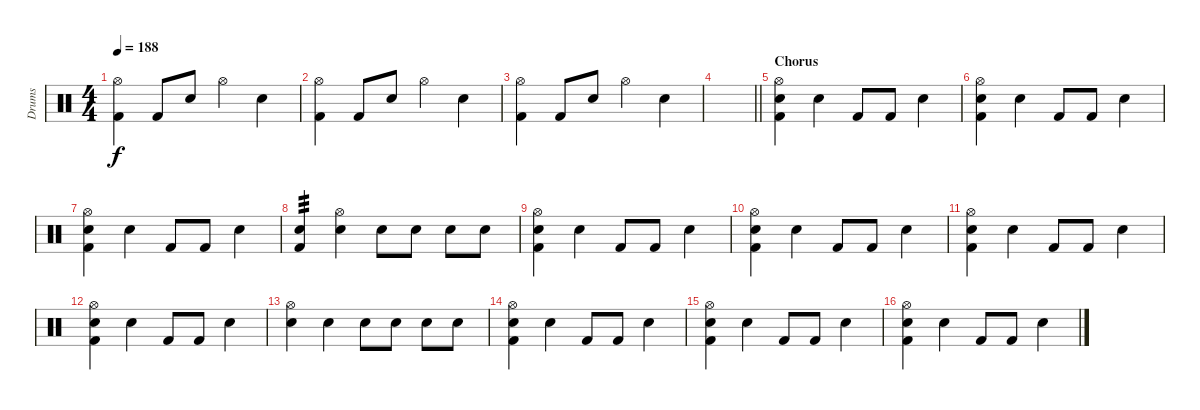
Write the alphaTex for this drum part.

\track ("Drums" "Drums") {instrument percussion}
\staff {score}
\articulation defaults
\ts (4 4)
\tempo 188
\clef neutral
\ks c
("Hi-Hat (open)" "Kick (hit) 2").4{dy f} "Kick (hit) 2".8 "Electric Snare (hit)".8 "Hi-Hat (open)".4 "Electric Snare (hit)".4 |
("Hi-Hat (open)" "Kick (hit) 2").4 "Kick (hit) 2".8 "Electric Snare (hit)".8 "Hi-Hat (open)".4 "Electric Snare (hit)".4 |
("Hi-Hat (open)" "Kick (hit) 2").4 "Kick (hit) 2".8 "Electric Snare (hit)".8 "Hi-Hat (open)".4 "Electric Snare (hit)".4 |
\barLineRight lightlight
|
\section ("" "Chorus")
("Hi-Hat (open)" "Electric Snare (hit)" "Kick (hit) 2").4 "Electric Snare (hit)".4 "Kick (hit) 2".8 "Kick (hit) 2".8 "Electric Snare (hit)".4 |
("Hi-Hat (open)" "Electric Snare (hit)" "Kick (hit) 2").4 "Electric Snare (hit)".4 "Kick (hit) 2".8 "Kick (hit) 2".8 "Electric Snare (hit)".4 |
("Hi-Hat (open)" "Electric Snare (hit)" "Kick (hit) 2").4 "Electric Snare (hit)".4 "Kick (hit) 2".8 "Kick (hit) 2".8 "Electric Snare (hit)".4 |
("Electric Snare (hit)" "Kick (hit) 2").4{tp 3} ("Hi-Hat (open)" "Electric Snare (hit)").4 "Electric Snare (hit)".8 "Electric Snare (hit)".8 "Electric Snare (hit)".8 "Electric Snare (hit)".8 |
("Hi-Hat (open)" "Electric Snare (hit)" "Kick (hit) 2").4 "Electric Snare (hit)".4 "Kick (hit) 2".8 "Kick (hit) 2".8 "Electric Snare (hit)".4 |
("Hi-Hat (open)" "Electric Snare (hit)" "Kick (hit) 2").4 "Electric Snare (hit)".4 "Kick (hit) 2".8 "Kick (hit) 2".8 "Electric Snare (hit)".4 |
("Hi-Hat (open)" "Electric Snare (hit)" "Kick (hit) 2").4 "Electric Snare (hit)".4 "Kick (hit) 2".8 "Kick (hit) 2".8 "Electric Snare (hit)".4 |
("Hi-Hat (open)" "Electric Snare (hit)" "Kick (hit) 2").4 "Electric Snare (hit)".4 "Kick (hit) 2".8 "Kick (hit) 2".8 "Electric Snare (hit)".4 |
("Hi-Hat (open)" "Electric Snare (hit)").4 "Electric Snare (hit)".4 "Electric Snare (hit)".8 "Electric Snare (hit)".8 "Electric Snare (hit)".8 "Electric Snare (hit)".8 |
("Hi-Hat (open)" "Electric Snare (hit)" "Kick (hit) 2").4 "Electric Snare (hit)".4 "Kick (hit) 2".8 "Kick (hit) 2".8 "Electric Snare (hit)".4 |
("Hi-Hat (open)" "Electric Snare (hit)" "Kick (hit) 2").4 "Electric Snare (hit)".4 "Kick (hit) 2".8 "Kick (hit) 2".8 "Electric Snare (hit)".4 |
("Hi-Hat (open)" "Electric Snare (hit)" "Kick (hit) 2").4 "Electric Snare (hit)".4 "Kick (hit) 2".8 "Kick (hit) 2".8 "Electric Snare (hit)".4
